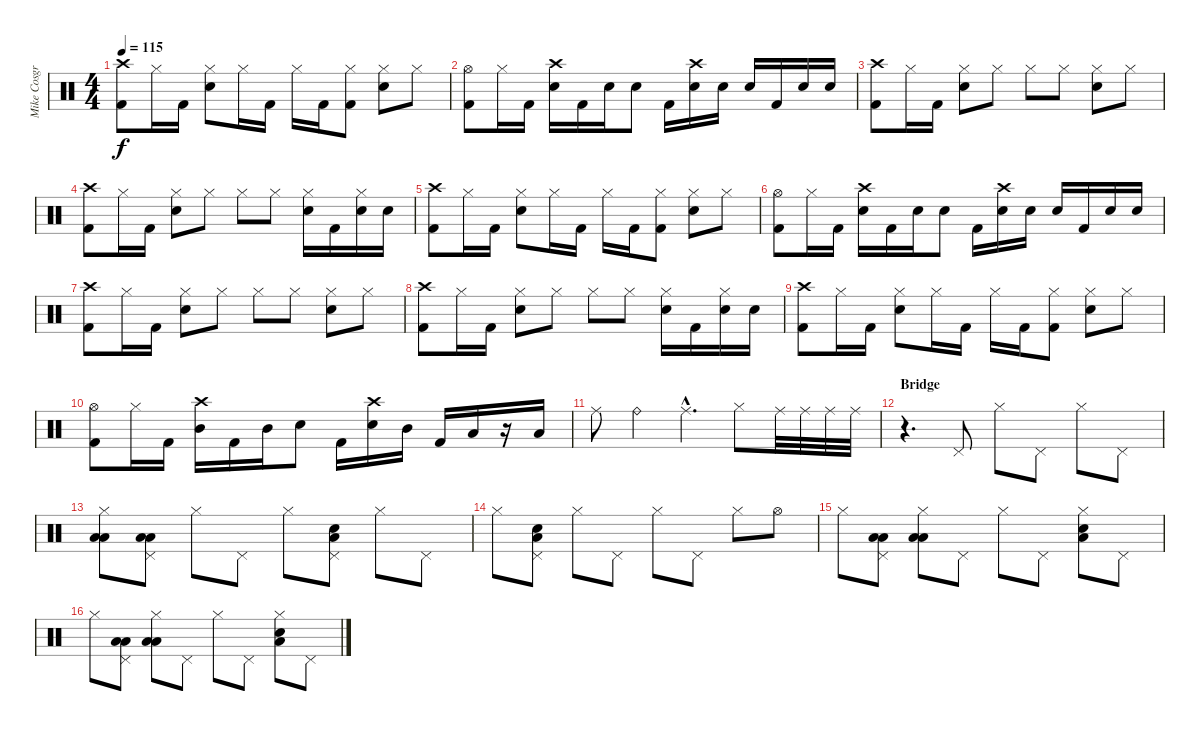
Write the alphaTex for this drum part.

\track ("Mike Cosgrove" "Mike Cosgr") {instrument percussion}
\staff {score}
\articulation defaults
\ts (4 4)
\tempo 115
\clef neutral
\ks c
("Crash high (hit)" "Kick (hit) 2").8{dy f} "Hi-Hat (closed)".16 "Kick (hit) 2".16 ("Hi-Hat (closed)" "Electric Snare (hit)").8 "Hi-Hat (closed)".16 "Kick (hit) 2".16 "Hi-Hat (closed)".16 "Kick (hit) 2".16 ("Hi-Hat (closed)" "Kick (hit) 2").8 ("Hi-Hat (closed)" "Electric Snare (hit)").8 "Hi-Hat (closed)".8 |
("Hi-Hat (open)" "Kick (hit) 2").8 "Hi-Hat (closed)".16 "Kick (hit) 2".16 ("Crash high (hit)" "Electric Snare (hit)").16 "Kick (hit) 2".16 "Electric Snare (hit)".16 "Electric Snare (hit)".8 "Kick (hit) 2".16 ("Crash high (hit)" "Electric Snare (hit)").16 "Electric Snare (hit)".16 "Electric Snare (hit)".16 "Kick (hit) 2".16 "Electric Snare (hit)".16 "Electric Snare (hit)".16 |
("Crash high (hit)" "Kick (hit) 2").8 "Hi-Hat (closed)".16 "Kick (hit) 2".16 ("Hi-Hat (closed)" "Electric Snare (hit)").8 "Hi-Hat (closed)".8 "Hi-Hat (closed)".8 "Hi-Hat (closed)".8 ("Hi-Hat (closed)" "Electric Snare (hit)").8 "Hi-Hat (closed)".8 |
("Crash high (hit)" "Kick (hit) 2").8 "Hi-Hat (closed)".16 "Kick (hit) 2".16 ("Hi-Hat (closed)" "Electric Snare (hit)").8 "Hi-Hat (closed)".8 "Hi-Hat (closed)".8 "Hi-Hat (closed)".8 ("Hi-Hat (closed)" "Electric Snare (hit)").16 "Kick (hit) 2".16 ("Hi-Hat (closed)" "Electric Snare (hit)").16 "Electric Snare (hit)".16 |
("Crash high (hit)" "Kick (hit) 2").8 "Hi-Hat (closed)".16 "Kick (hit) 2".16 ("Hi-Hat (closed)" "Electric Snare (hit)").8 "Hi-Hat (closed)".16 "Kick (hit) 2".16 "Hi-Hat (closed)".16 "Kick (hit) 2".16 ("Hi-Hat (closed)" "Kick (hit) 2").8 ("Hi-Hat (closed)" "Electric Snare (hit)").8 "Hi-Hat (closed)".8 |
("Hi-Hat (open)" "Kick (hit) 2").8 "Hi-Hat (closed)".16 "Kick (hit) 2".16 ("Crash high (hit)" "Electric Snare (hit)").16 "Kick (hit) 2".16 "Electric Snare (hit)".16 "Electric Snare (hit)".8 "Kick (hit) 2".16 ("Crash high (hit)" "Electric Snare (hit)").16 "Electric Snare (hit)".16 "Electric Snare (hit)".16 "Kick (hit) 2".16 "Electric Snare (hit)".16 "Electric Snare (hit)".16 |
("Crash high (hit)" "Kick (hit) 2").8 "Hi-Hat (closed)".16 "Kick (hit) 2".16 ("Hi-Hat (closed)" "Electric Snare (hit)").8 "Hi-Hat (closed)".8 "Hi-Hat (closed)".8 "Hi-Hat (closed)".8 ("Hi-Hat (closed)" "Electric Snare (hit)").8 "Hi-Hat (closed)".8 |
("Crash high (hit)" "Kick (hit) 2").8 "Hi-Hat (closed)".16 "Kick (hit) 2".16 ("Hi-Hat (closed)" "Electric Snare (hit)").8 "Hi-Hat (closed)".8 "Hi-Hat (closed)".8 "Hi-Hat (closed)".8 ("Hi-Hat (closed)" "Electric Snare (hit)").16 "Kick (hit) 2".16 ("Hi-Hat (closed)" "Electric Snare (hit)").16 "Electric Snare (hit)".16 |
("Crash high (hit)" "Kick (hit) 2").8 "Hi-Hat (closed)".16 "Kick (hit) 2".16 ("Hi-Hat (closed)" "Electric Snare (hit)").8 "Hi-Hat (closed)".16 "Kick (hit) 2".16 "Hi-Hat (closed)".16 "Kick (hit) 2".16 ("Hi-Hat (closed)" "Kick (hit) 2").8 ("Hi-Hat (closed)" "Electric Snare (hit)").8 "Hi-Hat (closed)".8 |
("Hi-Hat (open)" "Kick (hit) 2").8 "Hi-Hat (closed)".16 "Kick (hit) 2".16 ("Crash high (hit)" "Mid Tom (hit)").16 "Kick (hit) 2".16 "Mid Tom (hit)".16 "Electric Snare (hit)".8 "Kick (hit) 2".16 ("Crash high (hit)" "Electric Snare (hit)").16 "Mid Tom (hit)".16 "Kick (hit) 2".16 "Low Tom (hit)".16 r.16 "Low Floor Tom (hit)".16 |
"Ride (middle)".8 "Ride (bell)".4 "Ride (middle)"{hac}.4{d} "Hi-Hat (closed)".8 "Ride (middle)".32 "Ride (middle)".32 "Ride (middle)".32 "Ride (middle)".32 |
\section ("" "Bridge")
r.4{d} "Pedal Hi-Hat (hit)".8 "Hi-Hat (closed)".8 "Pedal Hi-Hat (hit)".8 "Hi-Hat (closed)".8 "Pedal Hi-Hat (hit)".8 |
("Hi-Hat (closed)" "Low Tom (hit)" "Low Floor Tom (hit)").8 ("Pedal Hi-Hat (hit)" "Low Tom (hit)" "Low Floor Tom (hit)").8 "Hi-Hat (closed)".8 "Pedal Hi-Hat (hit)".8 "Hi-Hat (closed)".8 ("Pedal Hi-Hat (hit)" "Electric Snare (hit)" "Low Floor Tom (hit)").8 "Hi-Hat (closed)".8 "Pedal Hi-Hat (hit)".8 |
"Hi-Hat (closed)".8 ("Pedal Hi-Hat (hit)" "Electric Snare (hit)" "Low Floor Tom (hit)").8 "Hi-Hat (closed)".8 "Pedal Hi-Hat (hit)".8 "Hi-Hat (closed)".8 "Pedal Hi-Hat (hit)".8 "Hi-Hat (closed)".8 "Hi-Hat (open)".8 |
"Hi-Hat (closed)".8 ("Pedal Hi-Hat (hit)" "Low Tom (hit)" "Low Floor Tom (hit)").8 ("Hi-Hat (closed)" "Low Tom (hit)" "Low Floor Tom (hit)").8 "Pedal Hi-Hat (hit)".8 "Hi-Hat (closed)".8 "Pedal Hi-Hat (hit)".8 ("Hi-Hat (closed)" "Electric Snare (hit)" "Low Floor Tom (hit)").8 "Pedal Hi-Hat (hit)".8 |
"Hi-Hat (closed)".8 ("Pedal Hi-Hat (hit)" "Low Tom (hit)" "Low Floor Tom (hit)").8 ("Hi-Hat (closed)" "Low Tom (hit)" "Low Floor Tom (hit)").8 "Pedal Hi-Hat (hit)".8 "Hi-Hat (closed)".8 "Pedal Hi-Hat (hit)".8 ("Hi-Hat (closed)" "Electric Snare (hit)" "Low Floor Tom (hit)").8 "Pedal Hi-Hat (hit)".8
